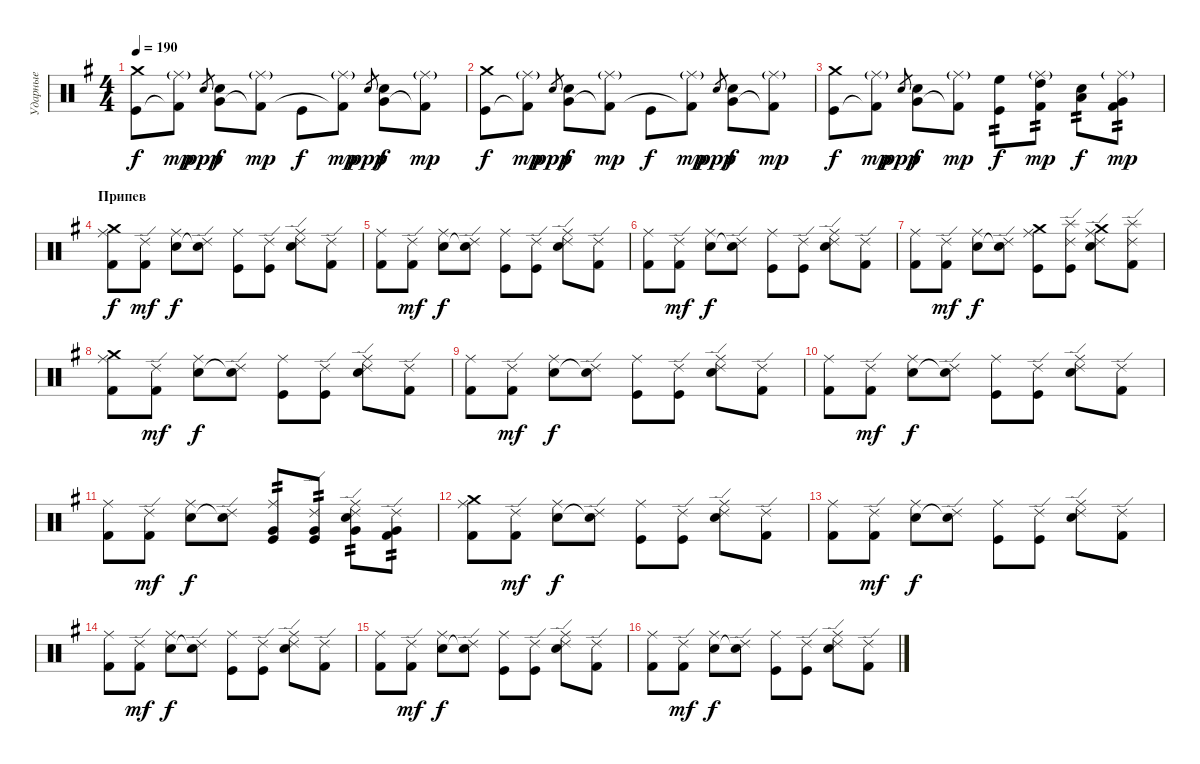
\track ("Ударные" "Ударные") {instrument percussion}
\staff {score}
\articulation defaults
\ts (4 4)
\tempo 190
\clef neutral
\ks g
("Crash medium (hit)" "Kick (hit)").8{dy f} ("Ride (middle)"{g} "Kick (hit) 2"{t}).8{dy mp} "Electric Snare (hit)".8{gr dy ppp} ("Snare (hit) 2" "Very Low Tom (hit)").8{dy f} ("Ride (middle)"{g} "Kick (hit) 2"{t}).8{dy mp} "Kick (hit)".8{dy f} ("Ride (middle)"{g} "Kick (hit) 2"{t}).8{dy mp} "Electric Snare (hit)".8{gr dy ppp} ("Snare (hit) 2" "Very Low Tom (hit)").8{dy f} ("Ride (middle)"{g} "Kick (hit) 2"{t}).8{dy mp} |
("Crash medium (hit)" "Kick (hit)").8{dy f} ("Ride (middle)"{g} "Kick (hit) 2"{t}).8{dy mp} "Electric Snare (hit)".8{gr dy ppp} ("Snare (hit) 2" "Very Low Tom (hit)").8{dy f} ("Ride (middle)"{g} "Kick (hit) 2"{t}).8{dy mp} "Kick (hit)".8{dy f} ("Ride (middle)"{g} "Kick (hit) 2"{t}).8{dy mp} "Electric Snare (hit)".8{gr dy ppp} ("Snare (hit) 2" "Very Low Tom (hit)").8{dy f} ("Ride (middle)"{g} "Kick (hit) 2"{t}).8{dy mp} |
("Crash medium (hit)" "Kick (hit)").8{dy f} ("Ride (middle)"{g} "Kick (hit) 2"{t}).8{dy mp} "Electric Snare (hit)".8{gr dy ppp} ("Snare (hit) 2" "Very Low Tom (hit)").8{dy f} ("Ride (middle)"{g} "Kick (hit) 2"{t}).8{dy mp} ("Kick (hit)" "High Floor Tom (hit)").8{tp 2 dy f} ("Ride (middle)"{g} "Kick (hit) 2" "High Tom (hit)").8{tp 2 dy mp} ("Snare (hit) 2" "Low Floor Tom (hit)").8{tp 2 dy f} ("Ride (middle)"{g} "Kick (hit) 2" "Very Low Tom (hit)").8{tp 2 dy mp} |
\section ("" "Припев")
("Kick (hit) 2" "Ride (middle)" "Crash medium (hit)").8{dy f} ("Kick (hit) 2" "Ride (edge) 2").8{dy mf} ("Snare (hit) 2" "Ride (middle)").8{dy f} ("Snare (hit)"{t} "Ride (edge) 2").8 ("Kick (hit)" "Ride (middle)").8 ("Kick (hit)" "Ride (edge) 2").8 ("Snare (hit) 2" "Ride (edge) 2" "Ride (middle)").8 ("Kick (hit) 2" "Ride (edge) 2").8 |
("Kick (hit) 2" "Ride (middle)").8 ("Kick (hit) 2" "Ride (edge) 2").8{dy mf} ("Snare (hit) 2" "Ride (middle)").8{dy f} ("Snare (hit)"{t} "Ride (edge) 2").8 ("Kick (hit)" "Ride (middle)").8 ("Kick (hit)" "Ride (edge) 2").8 ("Snare (hit) 2" "Ride (edge) 2" "Ride (middle)").8 ("Kick (hit) 2" "Ride (edge) 2").8 |
("Kick (hit) 2" "Ride (middle)").8 ("Kick (hit) 2" "Ride (edge) 2").8{dy mf} ("Snare (hit) 2" "Ride (middle)").8{dy f} ("Snare (hit)"{t} "Ride (edge) 2").8 ("Kick (hit)" "Ride (middle)").8 ("Kick (hit)" "Ride (edge) 2").8 ("Snare (hit) 2" "Ride (edge) 2" "Ride (middle)").8 ("Kick (hit) 2" "Ride (edge) 2").8 |
("Kick (hit) 2" "Ride (middle)").8 ("Kick (hit) 2" "Ride (edge) 2").8{dy mf} ("Snare (hit) 2" "Ride (middle)").8{dy f} ("Snare (hit)"{t} "Ride (edge) 2").8 ("Kick (hit)" "Ride (middle)" "Crash medium (hit)").8 ("Kick (hit)" "Ride (edge) 2" "Splash (hit)").8 ("Snare (hit) 2" "Ride (edge) 2" "Ride (middle)" "Crash medium (hit)").8 ("Kick (hit) 2" "Ride (edge) 2" "Splash (hit)").8 |
("Kick (hit) 2" "Ride (middle)" "Crash medium (hit)").8 ("Kick (hit) 2" "Ride (edge) 2").8{dy mf} ("Snare (hit) 2" "Ride (middle)").8{dy f} ("Snare (hit)"{t} "Ride (edge) 2").8 ("Kick (hit)" "Ride (middle)").8 ("Kick (hit)" "Ride (edge) 2").8 ("Snare (hit) 2" "Ride (edge) 2" "Ride (middle)").8 ("Kick (hit) 2" "Ride (edge) 2").8 |
("Kick (hit) 2" "Ride (middle)").8 ("Kick (hit) 2" "Ride (edge) 2").8{dy mf} ("Snare (hit) 2" "Ride (middle)").8{dy f} ("Snare (hit)"{t} "Ride (edge) 2").8 ("Kick (hit)" "Ride (middle)").8 ("Kick (hit)" "Ride (edge) 2").8 ("Snare (hit) 2" "Ride (edge) 2" "Ride (middle)").8 ("Kick (hit) 2" "Ride (edge) 2").8 |
("Kick (hit) 2" "Ride (middle)").8 ("Kick (hit) 2" "Ride (edge) 2").8{dy mf} ("Snare (hit) 2" "Ride (middle)").8{dy f} ("Snare (hit)"{t} "Ride (edge) 2").8 ("Kick (hit)" "Ride (middle)").8 ("Kick (hit)" "Ride (edge) 2").8 ("Snare (hit) 2" "Ride (edge) 2" "Ride (middle)").8 ("Kick (hit) 2" "Ride (edge) 2").8 |
("Kick (hit) 2" "Ride (middle)").8 ("Kick (hit) 2" "Ride (edge) 2").8{dy mf} ("Snare (hit) 2" "Ride (middle)").8{dy f} ("Snare (hit)"{t} "Ride (edge) 2").8 ("Kick (hit)" "Ride (middle)" "Very Low Tom (hit)").8{tp 2} ("Kick (hit)" "Ride (edge) 2" "Very Low Tom (hit)").8{tp 2} ("Snare (hit) 2" "Ride (edge) 2" "Ride (middle)" "Very Low Tom (hit)").8{tp 2} ("Kick (hit) 2" "Ride (edge) 2" "Very Low Tom (hit)").8{tp 2} |
("Kick (hit) 2" "Ride (middle)" "Crash medium (hit)").8 ("Kick (hit) 2" "Ride (edge) 2").8{dy mf} ("Snare (hit) 2" "Ride (middle)").8{dy f} ("Snare (hit)"{t} "Ride (edge) 2").8 ("Kick (hit)" "Ride (middle)").8 ("Kick (hit)" "Ride (edge) 2").8 ("Snare (hit) 2" "Ride (edge) 2" "Ride (middle)").8 ("Kick (hit) 2" "Ride (edge) 2").8 |
("Kick (hit) 2" "Ride (middle)").8 ("Kick (hit) 2" "Ride (edge) 2").8{dy mf} ("Snare (hit) 2" "Ride (middle)").8{dy f} ("Snare (hit)"{t} "Ride (edge) 2").8 ("Kick (hit)" "Ride (middle)").8 ("Kick (hit)" "Ride (edge) 2").8 ("Snare (hit) 2" "Ride (edge) 2" "Ride (middle)").8 ("Kick (hit) 2" "Ride (edge) 2").8 |
("Kick (hit) 2" "Ride (middle)").8 ("Kick (hit) 2" "Ride (edge) 2").8{dy mf} ("Snare (hit) 2" "Ride (middle)").8{dy f} ("Snare (hit)"{t} "Ride (edge) 2").8 ("Kick (hit)" "Ride (middle)").8 ("Kick (hit)" "Ride (edge) 2").8 ("Snare (hit) 2" "Ride (edge) 2" "Ride (middle)").8 ("Kick (hit) 2" "Ride (edge) 2").8 |
("Kick (hit) 2" "Ride (middle)").8 ("Kick (hit) 2" "Ride (edge) 2").8{dy mf} ("Snare (hit) 2" "Ride (middle)").8{dy f} ("Snare (hit)"{t} "Ride (edge) 2").8 ("Kick (hit)" "Ride (middle)").8 ("Kick (hit)" "Ride (edge) 2").8 ("Snare (hit) 2" "Ride (edge) 2" "Ride (middle)").8 ("Kick (hit) 2" "Ride (edge) 2").8 |
("Kick (hit) 2" "Ride (middle)").8 ("Kick (hit) 2" "Ride (edge) 2").8{dy mf} ("Snare (hit) 2" "Ride (middle)").8{dy f} ("Snare (hit)"{t} "Ride (edge) 2").8 ("Kick (hit)" "Ride (middle)").8 ("Kick (hit)" "Ride (edge) 2").8 ("Snare (hit) 2" "Ride (edge) 2" "Ride (middle)").8 ("Kick (hit) 2" "Ride (edge) 2").8
